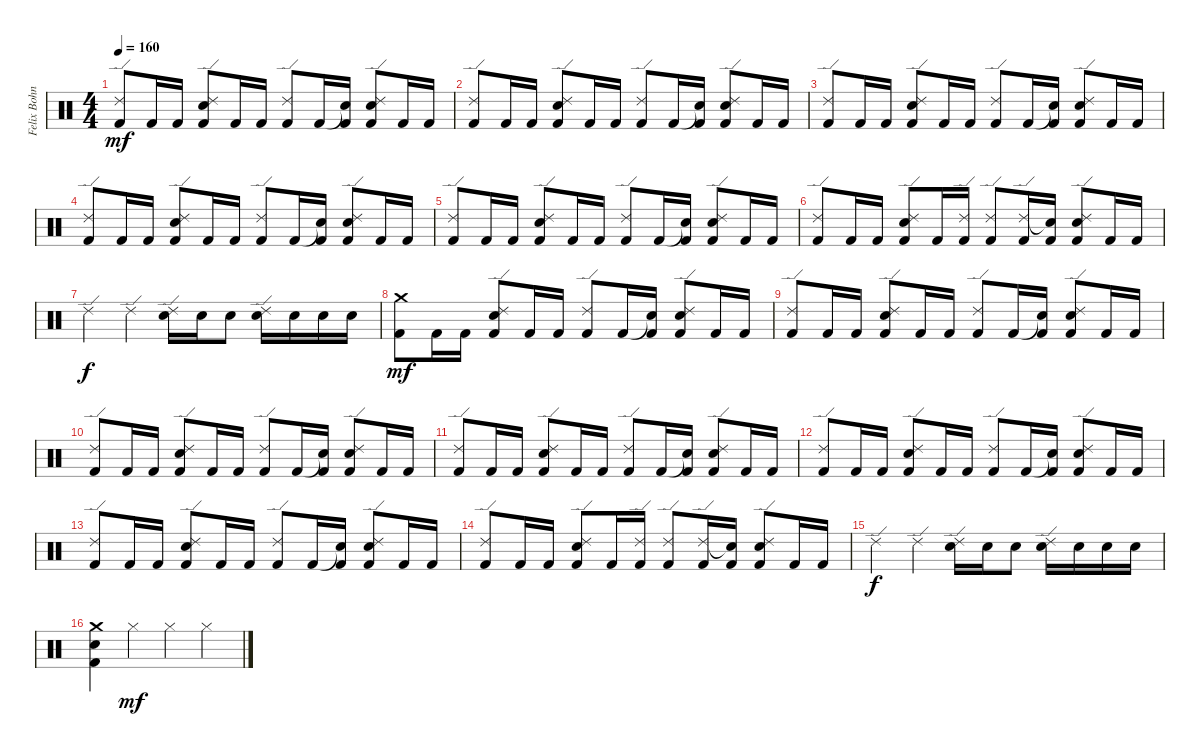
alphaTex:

\track ("Felix Bohnke" "Felix Bohn") {instrument percussion}
\staff {score}
\articulation defaults
\ts (4 4)
\tempo 160
\clef neutral
\ks c
("Ride (edge) 2" "Kick (hit) 2").8{dy mf} "Kick (hit) 2".16 "Kick (hit) 2".16 ("Ride (edge) 2" "Electric Snare (hit)" "Kick (hit) 2").8 "Kick (hit) 2".16 "Kick (hit) 2".16 ("Ride (edge) 2" "Kick (hit) 2").8 "Kick (hit) 2".16 ("Snare (hit)"{t} "Kick (hit) 2").16 ("Ride (edge) 2" "Electric Snare (hit)" "Kick (hit) 2").8 "Kick (hit) 2".16 "Kick (hit) 2".16 |
("Ride (edge) 2" "Kick (hit) 2").8 "Kick (hit) 2".16 "Kick (hit) 2".16 ("Ride (edge) 2" "Electric Snare (hit)" "Kick (hit) 2").8 "Kick (hit) 2".16 "Kick (hit) 2".16 ("Ride (edge) 2" "Kick (hit) 2").8 "Kick (hit) 2".16 ("Snare (hit)"{t} "Kick (hit) 2").16 ("Ride (edge) 2" "Electric Snare (hit)" "Kick (hit) 2").8 "Kick (hit) 2".16 "Kick (hit) 2".16 |
("Ride (edge) 2" "Kick (hit) 2").8 "Kick (hit) 2".16 "Kick (hit) 2".16 ("Ride (edge) 2" "Electric Snare (hit)" "Kick (hit) 2").8 "Kick (hit) 2".16 "Kick (hit) 2".16 ("Ride (edge) 2" "Kick (hit) 2").8 "Kick (hit) 2".16 ("Snare (hit)"{t} "Kick (hit) 2").16 ("Ride (edge) 2" "Electric Snare (hit)" "Kick (hit) 2").8 "Kick (hit) 2".16 "Kick (hit) 2".16 |
("Ride (edge) 2" "Kick (hit) 2").8 "Kick (hit) 2".16 "Kick (hit) 2".16 ("Ride (edge) 2" "Electric Snare (hit)" "Kick (hit) 2").8 "Kick (hit) 2".16 "Kick (hit) 2".16 ("Ride (edge) 2" "Kick (hit) 2").8 "Kick (hit) 2".16 ("Snare (hit)"{t} "Kick (hit) 2").16 ("Ride (edge) 2" "Electric Snare (hit)" "Kick (hit) 2").8 "Kick (hit) 2".16 "Kick (hit) 2".16 |
("Ride (edge) 2" "Kick (hit) 2").8 "Kick (hit) 2".16 "Kick (hit) 2".16 ("Ride (edge) 2" "Electric Snare (hit)" "Kick (hit) 2").8 "Kick (hit) 2".16 "Kick (hit) 2".16 ("Ride (edge) 2" "Kick (hit) 2").8 "Kick (hit) 2".16 ("Snare (hit)"{t} "Kick (hit) 2").16 ("Ride (edge) 2" "Electric Snare (hit)" "Kick (hit) 2").8 "Kick (hit) 2".16 "Kick (hit) 2".16 |
("Ride (edge) 2" "Kick (hit) 2").8 "Kick (hit) 2".16 "Kick (hit) 2".16 ("Ride (edge) 2" "Electric Snare (hit)" "Kick (hit) 2").8 "Kick (hit) 2".16 ("Ride (edge) 2" "Kick (hit) 2").16 ("Ride (edge) 2" "Kick (hit) 2").8 ("Ride (edge) 2" "Kick (hit) 2").16 ("Snare (hit)"{t} "Kick (hit) 2").16 ("Ride (edge) 2" "Electric Snare (hit)" "Kick (hit) 2").8 "Kick (hit) 2".16 "Kick (hit) 2".16 |
"Ride (edge) 2".4{dy f} "Ride (edge) 2".4 ("Ride (edge) 2" "Electric Snare (hit)").16 "Electric Snare (hit)".16 "Electric Snare (hit)".8 ("Ride (edge) 2" "Electric Snare (hit)").16 "Electric Snare (hit)".16 "Electric Snare (hit)".16 "Electric Snare (hit)".16 |
("Crash medium (hit)" "Kick (hit) 2").8{dy mf} "Kick (hit) 2".16 "Kick (hit) 2".16 ("Ride (edge) 2" "Electric Snare (hit)" "Kick (hit) 2").8 "Kick (hit) 2".16 "Kick (hit) 2".16 ("Ride (edge) 2" "Kick (hit) 2").8 "Kick (hit) 2".16 ("Snare (hit)"{t} "Kick (hit) 2").16 ("Ride (edge) 2" "Electric Snare (hit)" "Kick (hit) 2").8 "Kick (hit) 2".16 "Kick (hit) 2".16 |
("Ride (edge) 2" "Kick (hit) 2").8 "Kick (hit) 2".16 "Kick (hit) 2".16 ("Ride (edge) 2" "Electric Snare (hit)" "Kick (hit) 2").8 "Kick (hit) 2".16 "Kick (hit) 2".16 ("Ride (edge) 2" "Kick (hit) 2").8 "Kick (hit) 2".16 ("Snare (hit)"{t} "Kick (hit) 2").16 ("Ride (edge) 2" "Electric Snare (hit)" "Kick (hit) 2").8 "Kick (hit) 2".16 "Kick (hit) 2".16 |
("Ride (edge) 2" "Kick (hit) 2").8 "Kick (hit) 2".16 "Kick (hit) 2".16 ("Ride (edge) 2" "Electric Snare (hit)" "Kick (hit) 2").8 "Kick (hit) 2".16 "Kick (hit) 2".16 ("Ride (edge) 2" "Kick (hit) 2").8 "Kick (hit) 2".16 ("Snare (hit)"{t} "Kick (hit) 2").16 ("Ride (edge) 2" "Electric Snare (hit)" "Kick (hit) 2").8 "Kick (hit) 2".16 "Kick (hit) 2".16 |
("Ride (edge) 2" "Kick (hit) 2").8 "Kick (hit) 2".16 "Kick (hit) 2".16 ("Ride (edge) 2" "Electric Snare (hit)" "Kick (hit) 2").8 "Kick (hit) 2".16 "Kick (hit) 2".16 ("Ride (edge) 2" "Kick (hit) 2").8 "Kick (hit) 2".16 ("Snare (hit)"{t} "Kick (hit) 2").16 ("Ride (edge) 2" "Electric Snare (hit)" "Kick (hit) 2").8 "Kick (hit) 2".16 "Kick (hit) 2".16 |
("Ride (edge) 2" "Kick (hit) 2").8 "Kick (hit) 2".16 "Kick (hit) 2".16 ("Ride (edge) 2" "Electric Snare (hit)" "Kick (hit) 2").8 "Kick (hit) 2".16 "Kick (hit) 2".16 ("Ride (edge) 2" "Kick (hit) 2").8 "Kick (hit) 2".16 ("Snare (hit)"{t} "Kick (hit) 2").16 ("Ride (edge) 2" "Electric Snare (hit)" "Kick (hit) 2").8 "Kick (hit) 2".16 "Kick (hit) 2".16 |
("Ride (edge) 2" "Kick (hit) 2").8 "Kick (hit) 2".16 "Kick (hit) 2".16 ("Ride (edge) 2" "Electric Snare (hit)" "Kick (hit) 2").8 "Kick (hit) 2".16 "Kick (hit) 2".16 ("Ride (edge) 2" "Kick (hit) 2").8 "Kick (hit) 2".16 ("Snare (hit)"{t} "Kick (hit) 2").16 ("Ride (edge) 2" "Electric Snare (hit)" "Kick (hit) 2").8 "Kick (hit) 2".16 "Kick (hit) 2".16 |
("Ride (edge) 2" "Kick (hit) 2").8 "Kick (hit) 2".16 "Kick (hit) 2".16 ("Ride (edge) 2" "Electric Snare (hit)" "Kick (hit) 2").8 "Kick (hit) 2".16 ("Ride (edge) 2" "Kick (hit) 2").16 ("Ride (edge) 2" "Kick (hit) 2").8 ("Ride (edge) 2" "Kick (hit) 2").16 ("Snare (hit)"{t} "Kick (hit) 2").16 ("Ride (edge) 2" "Electric Snare (hit)" "Kick (hit) 2").8 "Kick (hit) 2".16 "Kick (hit) 2".16 |
"Ride (edge) 2".4{dy f} "Ride (edge) 2".4 ("Ride (edge) 2" "Electric Snare (hit)").16 "Electric Snare (hit)".16 "Electric Snare (hit)".8 ("Ride (edge) 2" "Electric Snare (hit)").16 "Electric Snare (hit)".16 "Electric Snare (hit)".16 "Electric Snare (hit)".16 |
("Crash medium (hit)" "Electric Snare (hit)" "Kick (hit) 2").4 "Hi-Hat (closed)".4{dy mf} "Hi-Hat (closed)".4 "Hi-Hat (closed)".4
